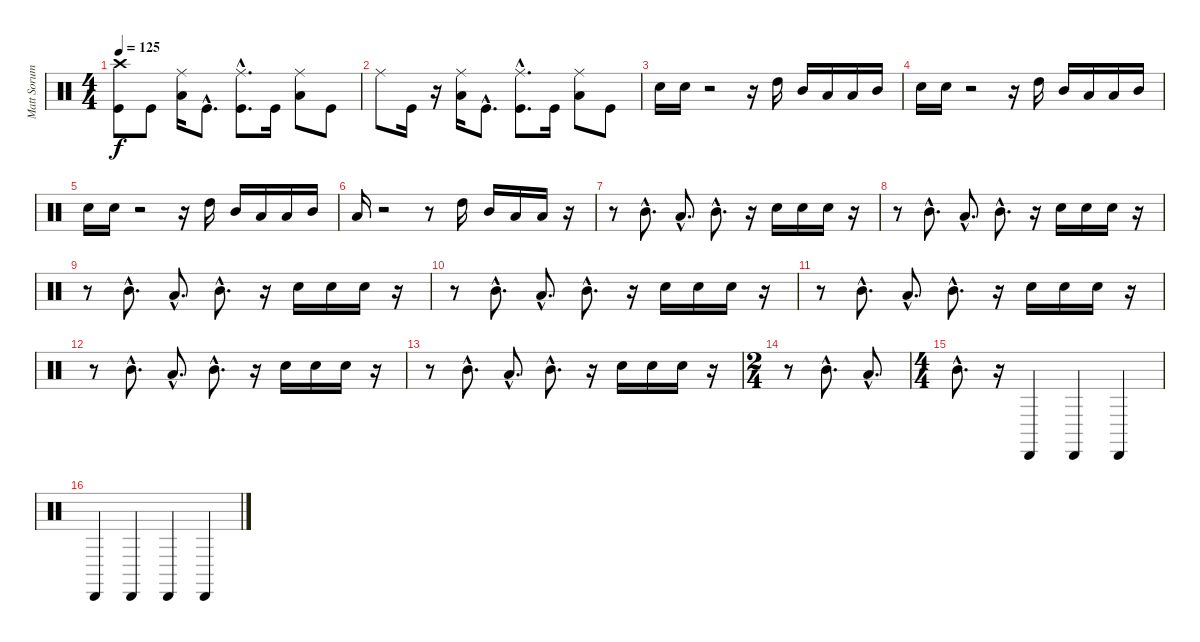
\track ("Matt Sorum" "Matt Sorum") {instrument percussion}
\staff {score}
\articulation defaults
\ts (4 4)
\tempo 125
\clef neutral
\ks c
("Crash high (hit)" "Kick (hit)").8{dy f} "Kick (hit)".8 ("Low Tom (hit)" "Ride (middle)").16 "Kick (hit)"{hac}.8{d} ("Ride (middle)" "Kick (hit)"{hac}).8{d} "Kick (hit)".16 ("Low Tom (hit)" "Ride (middle)").8 "Kick (hit)".8 |
"Ride (middle)".8 "Kick (hit)".16 r.16 ("Low Tom (hit)" "Ride (middle)").16 "Kick (hit)"{hac}.8{d} ("Ride (middle)" "Kick (hit)"{hac}).8{d} "Kick (hit)".16 ("Low Tom (hit)" "Ride (middle)").8 "Kick (hit)".8 |
"Electric Snare (hit)".16 "Electric Snare (hit)".16 r.2 r.16 "High Tom (hit)".16 "Mid Tom (hit)".16 "Low Tom (hit)".16 "Low Tom (hit)".16 "Mid Tom (hit)".16 |
"Electric Snare (hit)".16 "Electric Snare (hit)".16 r.2 r.16 "High Tom (hit)".16 "Mid Tom (hit)".16 "Low Tom (hit)".16 "Low Tom (hit)".16 "Mid Tom (hit)".16 |
"Electric Snare (hit)".16 "Electric Snare (hit)".16 r.2 r.16 "High Tom (hit)".16 "Mid Tom (hit)".16 "Low Tom (hit)".16 "Low Tom (hit)".16 "Mid Tom (hit)".16 |
"Low Tom (hit)".16 r.2 r.8 "High Tom (hit)".16 "Mid Tom (hit)".16 "Low Tom (hit)".16 "Low Tom (hit)".16 r.16 |
r.8 "Mid Tom (hit)"{hac}.8{d} "Low Tom (hit)"{hac}.8{d} "Mid Tom (hit)"{hac}.8{d} r.16 "Electric Snare (hit)".16 "Electric Snare (hit)".16 "Electric Snare (hit)".16 r.16 |
r.8 "Mid Tom (hit)"{hac}.8{d} "Low Tom (hit)"{hac}.8{d} "Mid Tom (hit)"{hac}.8{d} r.16 "Electric Snare (hit)".16 "Electric Snare (hit)".16 "Electric Snare (hit)".16 r.16 |
r.8 "Mid Tom (hit)"{hac}.8{d} "Low Tom (hit)"{hac}.8{d} "Mid Tom (hit)"{hac}.8{d} r.16 "Electric Snare (hit)".16 "Electric Snare (hit)".16 "Electric Snare (hit)".16 r.16 |
r.8 "Mid Tom (hit)"{hac}.8{d} "Low Tom (hit)"{hac}.8{d} "Mid Tom (hit)"{hac}.8{d} r.16 "Electric Snare (hit)".16 "Electric Snare (hit)".16 "Electric Snare (hit)".16 r.16 |
r.8 "Mid Tom (hit)"{hac}.8{d} "Low Tom (hit)"{hac}.8{d} "Mid Tom (hit)"{hac}.8{d} r.16 "Electric Snare (hit)".16 "Electric Snare (hit)".16 "Electric Snare (hit)".16 r.16 |
r.8 "Mid Tom (hit)"{hac}.8{d} "Low Tom (hit)"{hac}.8{d} "Mid Tom (hit)"{hac}.8{d} r.16 "Electric Snare (hit)".16 "Electric Snare (hit)".16 "Electric Snare (hit)".16 r.16 |
r.8 "Mid Tom (hit)"{hac}.8{d} "Low Tom (hit)"{hac}.8{d} "Mid Tom (hit)"{hac}.8{d} r.16 "Electric Snare (hit)".16 "Electric Snare (hit)".16 "Electric Snare (hit)".16 r.16 |
\ts (2 4)
r.8 "Mid Tom (hit)"{hac}.8{d} "Low Tom (hit)"{hac}.8{d} |
\ts (4 4)
"Mid Tom (hit)"{hac}.8{d} r.16 "Cabasa (hit)".4 "Cabasa (hit)".4 "Cabasa (hit)".4 |
"Cabasa (hit)".4 "Cabasa (hit)".4 "Cabasa (hit)".4 "Cabasa (hit)".4
